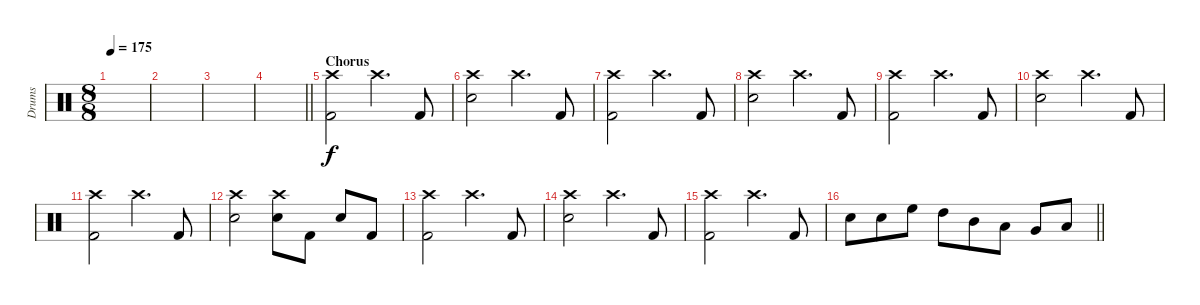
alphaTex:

\track ("Drums" "Drums") {instrument percussion}
\staff {score}
\articulation defaults
\ts (8 8)
\tempo 175
\clef neutral
\ks c
|
|
|
\barLineRight lightlight
|
\section ("" "Chorus")
("Crash high (hit)" "Kick (hit) 2").2 "Crash high (hit)".4{d} "Kick (hit) 2".8 |
("Crash high (hit)" "Electric Snare (hit)").2 "Crash high (hit)".4{d} "Kick (hit) 2".8 |
("Crash high (hit)" "Kick (hit) 2").2 "Crash high (hit)".4{d} "Kick (hit) 2".8 |
("Crash high (hit)" "Electric Snare (hit)").2 "Crash high (hit)".4{d} "Kick (hit) 2".8 |
("Crash high (hit)" "Kick (hit) 2").2 "Crash high (hit)".4{d} "Kick (hit) 2".8 |
("Crash high (hit)" "Electric Snare (hit)").2 "Crash high (hit)".4{d} "Kick (hit) 2".8 |
("Crash high (hit)" "Kick (hit) 2").2 "Crash high (hit)".4{d} "Kick (hit) 2".8 |
("Crash high (hit)" "Electric Snare (hit)").2 ("Crash high (hit)" "Electric Snare (hit)").8 "Kick (hit) 2".8 "Electric Snare (hit)".8 "Kick (hit) 2".8 |
("Crash high (hit)" "Kick (hit) 2").2 "Crash high (hit)".4{d} "Kick (hit) 2".8 |
("Crash high (hit)" "Electric Snare (hit)").2 "Crash high (hit)".4{d} "Kick (hit) 2".8 |
("Crash high (hit)" "Kick (hit) 2").2 "Crash high (hit)".4{d} "Kick (hit) 2".8 |
\barLineRight lightlight "Electric Snare (hit)".8 "Electric Snare (hit)".8 "High Floor Tom (hit)".8 "High Tom (hit)".8 "Mid Tom (hit)".8 "Low Tom (hit)".8 "Very Low Tom (hit)".8 "Low Floor Tom (hit)".8
